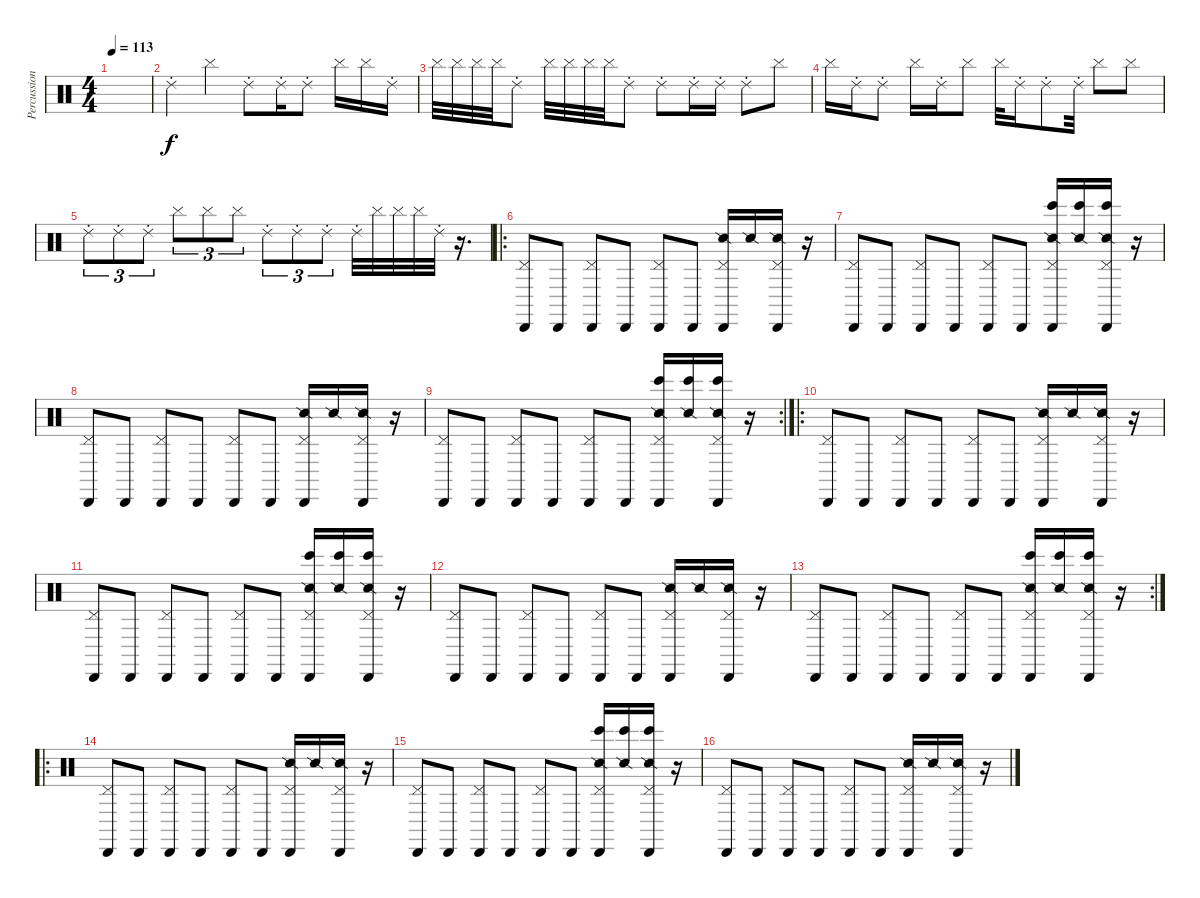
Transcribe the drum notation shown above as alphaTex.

\track ("Percussion" "Percussion") {instrument percussion}
\staff {score}
\articulation defaults
\ts (4 4)
\tempo 113
\clef neutral
\ks c
|
"Ride (choke) 2".4{volume 16} "Cymbal (hit)".4 "Ride (choke) 2".8 "Ride (choke) 2".16 "Ride (choke) 2".8 "Cymbal (hit)".16 "Cymbal (hit)".16 "Ride (choke) 2".16 |
"Cymbal (hit)".32 "Cymbal (hit)".32 "Cymbal (hit)".32 "Cymbal (hit)".32 "Ride (choke) 2".8 "Cymbal (hit)".32 "Cymbal (hit)".32 "Cymbal (hit)".32 "Cymbal (hit)".32 "Ride (choke) 2".8 "Ride (choke) 2".8 "Ride (choke) 2".16 "Ride (choke) 2".16 "Ride (choke) 2".8 "Cymbal (hit)".8 |
"Cymbal (hit)".16 "Ride (choke) 2".16 "Ride (choke) 2".8 "Cymbal (hit)".16 "Ride (choke) 2".16 "Cymbal (hit)".8 "Cymbal (hit)".32 "Ride (choke) 2".16 "Ride (choke) 2".8 "Ride (choke) 2".32 "Cymbal (hit)".8 "Cymbal (hit)".8 |
"Ride (choke) 2".8{tu (3 2)} "Ride (choke) 2".8{tu (3 2)} "Ride (choke) 2".8{tu (3 2)} "Cymbal (hit)".8{tu (3 2)} "Cymbal (hit)".8{tu (3 2)} "Cymbal (hit)".8{tu (3 2)} "Ride (choke) 2".8{tu (3 2)} "Ride (choke) 2".8{tu (3 2)} "Ride (choke) 2".8{tu (3 2)} "Ride (choke) 2".32 "Cymbal (hit)".32 "Cymbal (hit)".32 "Cymbal (hit)".32 "Ride (choke) 2".32 r.16{d} |
\ro
("Cabasa (hit)" "Pedal Hi-Hat (hit)").8 "Cabasa (hit)".8 ("Cabasa (hit)" "Pedal Hi-Hat (hit)").8 "Cabasa (hit)".8 ("Cabasa (hit)" "Pedal Hi-Hat (hit)").8 "Cabasa (hit)".8 ("Cabasa (hit)" "Snare (side stick) 2" "Pedal Hi-Hat (hit)").16 "Snare (side stick) 2".16 ("Cabasa (hit)" "Snare (side stick) 2" "Pedal Hi-Hat (hit)").16 r.16 |
("Cabasa (hit)" "Pedal Hi-Hat (hit)").8 "Cabasa (hit)".8 ("Cabasa (hit)" "Pedal Hi-Hat (hit)").8 "Cabasa (hit)".8 ("Cabasa (hit)" "Pedal Hi-Hat (hit)").8 "Cabasa (hit)".8 ("Cabasa (hit)" "Snare (side stick) 2" "Bongo High (hit)" "Pedal Hi-Hat (hit)").16 ("Snare (side stick) 2" "Bongo High (hit)").16 ("Cabasa (hit)" "Snare (side stick) 2" "Bongo High (hit)" "Pedal Hi-Hat (hit)").16 r.16 |
("Cabasa (hit)" "Pedal Hi-Hat (hit)").8 "Cabasa (hit)".8 ("Cabasa (hit)" "Pedal Hi-Hat (hit)").8 "Cabasa (hit)".8 ("Cabasa (hit)" "Pedal Hi-Hat (hit)").8 "Cabasa (hit)".8 ("Cabasa (hit)" "Snare (side stick) 2" "Pedal Hi-Hat (hit)").16 "Snare (side stick) 2".16 ("Cabasa (hit)" "Snare (side stick) 2" "Pedal Hi-Hat (hit)").16 r.16 |
\rc 2
("Cabasa (hit)" "Pedal Hi-Hat (hit)").8 "Cabasa (hit)".8 ("Cabasa (hit)" "Pedal Hi-Hat (hit)").8 "Cabasa (hit)".8 ("Cabasa (hit)" "Pedal Hi-Hat (hit)").8 "Cabasa (hit)".8 ("Cabasa (hit)" "Snare (side stick) 2" "Bongo High (hit)" "Pedal Hi-Hat (hit)").16 ("Snare (side stick) 2" "Bongo High (hit)").16 ("Cabasa (hit)" "Snare (side stick) 2" "Bongo High (hit)" "Pedal Hi-Hat (hit)").16 r.16 |
\ro
("Cabasa (hit)" "Pedal Hi-Hat (hit)").8 "Cabasa (hit)".8 ("Cabasa (hit)" "Pedal Hi-Hat (hit)").8 "Cabasa (hit)".8 ("Cabasa (hit)" "Pedal Hi-Hat (hit)").8 "Cabasa (hit)".8 ("Cabasa (hit)" "Snare (side stick) 2" "Pedal Hi-Hat (hit)").16 "Snare (side stick) 2".16 ("Cabasa (hit)" "Snare (side stick) 2" "Pedal Hi-Hat (hit)").16 r.16 |
("Cabasa (hit)" "Pedal Hi-Hat (hit)").8 "Cabasa (hit)".8 ("Cabasa (hit)" "Pedal Hi-Hat (hit)").8 "Cabasa (hit)".8 ("Cabasa (hit)" "Pedal Hi-Hat (hit)").8 "Cabasa (hit)".8 ("Cabasa (hit)" "Snare (side stick) 2" "Bongo High (hit)" "Pedal Hi-Hat (hit)").16 ("Snare (side stick) 2" "Bongo High (hit)").16 ("Cabasa (hit)" "Snare (side stick) 2" "Bongo High (hit)" "Pedal Hi-Hat (hit)").16 r.16 |
("Cabasa (hit)" "Pedal Hi-Hat (hit)").8 "Cabasa (hit)".8 ("Cabasa (hit)" "Pedal Hi-Hat (hit)").8 "Cabasa (hit)".8 ("Cabasa (hit)" "Pedal Hi-Hat (hit)").8 "Cabasa (hit)".8 ("Cabasa (hit)" "Snare (side stick) 2" "Pedal Hi-Hat (hit)").16 "Snare (side stick) 2".16 ("Cabasa (hit)" "Snare (side stick) 2" "Pedal Hi-Hat (hit)").16 r.16 |
\rc 2
("Cabasa (hit)" "Pedal Hi-Hat (hit)").8 "Cabasa (hit)".8 ("Cabasa (hit)" "Pedal Hi-Hat (hit)").8 "Cabasa (hit)".8 ("Cabasa (hit)" "Pedal Hi-Hat (hit)").8 "Cabasa (hit)".8 ("Cabasa (hit)" "Snare (side stick) 2" "Bongo High (hit)" "Pedal Hi-Hat (hit)").16 ("Snare (side stick) 2" "Bongo High (hit)").16 ("Cabasa (hit)" "Snare (side stick) 2" "Bongo High (hit)" "Pedal Hi-Hat (hit)").16 r.16 |
\ro
("Cabasa (hit)" "Pedal Hi-Hat (hit)").8 "Cabasa (hit)".8 ("Cabasa (hit)" "Pedal Hi-Hat (hit)").8 "Cabasa (hit)".8 ("Cabasa (hit)" "Pedal Hi-Hat (hit)").8 "Cabasa (hit)".8 ("Cabasa (hit)" "Snare (side stick) 2" "Pedal Hi-Hat (hit)").16 "Snare (side stick) 2".16 ("Cabasa (hit)" "Snare (side stick) 2" "Pedal Hi-Hat (hit)").16 r.16 |
("Cabasa (hit)" "Pedal Hi-Hat (hit)").8 "Cabasa (hit)".8 ("Cabasa (hit)" "Pedal Hi-Hat (hit)").8 "Cabasa (hit)".8 ("Cabasa (hit)" "Pedal Hi-Hat (hit)").8 "Cabasa (hit)".8 ("Cabasa (hit)" "Snare (side stick) 2" "Bongo High (hit)" "Pedal Hi-Hat (hit)").16 ("Snare (side stick) 2" "Bongo High (hit)").16 ("Cabasa (hit)" "Snare (side stick) 2" "Bongo High (hit)" "Pedal Hi-Hat (hit)").16 r.16 |
("Cabasa (hit)" "Pedal Hi-Hat (hit)").8 "Cabasa (hit)".8 ("Cabasa (hit)" "Pedal Hi-Hat (hit)").8 "Cabasa (hit)".8 ("Cabasa (hit)" "Pedal Hi-Hat (hit)").8 "Cabasa (hit)".8 ("Cabasa (hit)" "Snare (side stick) 2" "Pedal Hi-Hat (hit)").16 "Snare (side stick) 2".16 ("Cabasa (hit)" "Snare (side stick) 2" "Pedal Hi-Hat (hit)").16 r.16
